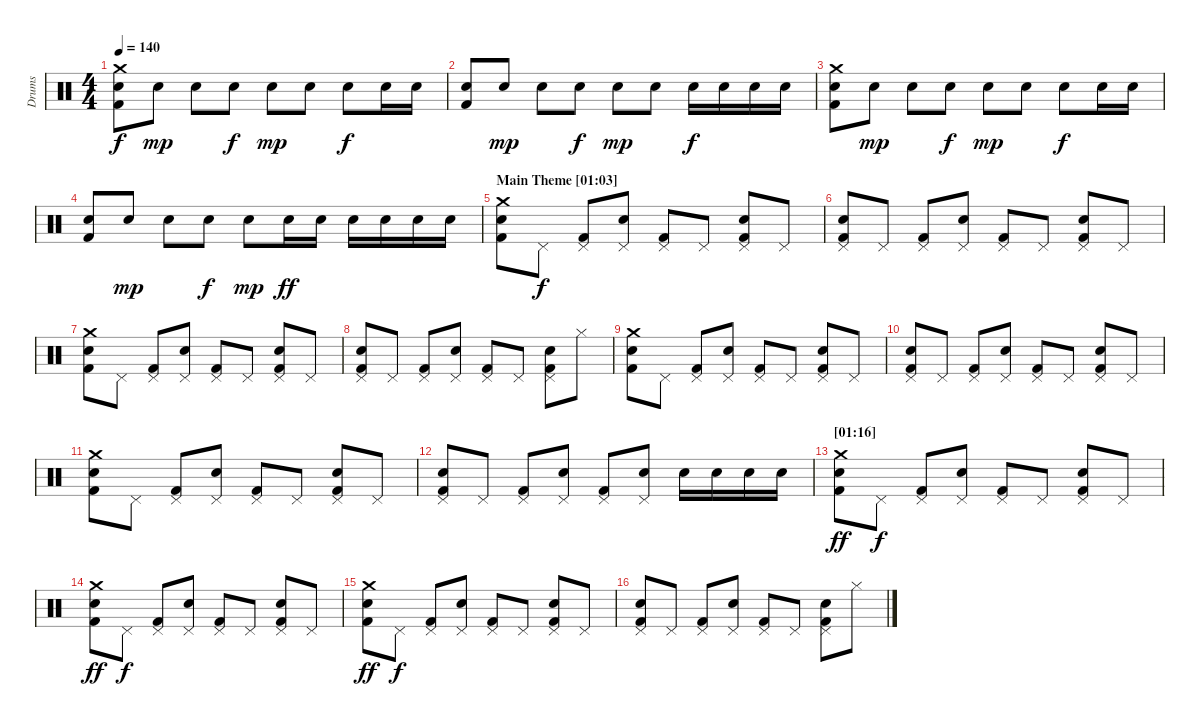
\track ("Drums" "Drums") {instrument percussion}
\staff {score}
\articulation defaults
\ts (4 4)
\tempo 140
\clef neutral
\ks c
("Crash medium (hit)" "Electric Snare (hit)" "Kick (hit) 2").8{dy f} "Electric Snare (hit)".8{dy mp} "Electric Snare (hit)".8 "Electric Snare (hit)".8{dy f} "Electric Snare (hit)".8{dy mp} "Electric Snare (hit)".8 "Electric Snare (hit)".8{dy f} "Electric Snare (hit)".16 "Electric Snare (hit)".16 |
("Electric Snare (hit)" "Kick (hit) 2").8 "Electric Snare (hit)".8{dy mp} "Electric Snare (hit)".8 "Electric Snare (hit)".8{dy f} "Electric Snare (hit)".8{dy mp} "Electric Snare (hit)".8 "Electric Snare (hit)".16{dy f} "Electric Snare (hit)".16 "Electric Snare (hit)".16 "Electric Snare (hit)".16 |
("Crash medium (hit)" "Electric Snare (hit)" "Kick (hit) 2").8 "Electric Snare (hit)".8{dy mp} "Electric Snare (hit)".8 "Electric Snare (hit)".8{dy f} "Electric Snare (hit)".8{dy mp} "Electric Snare (hit)".8 "Electric Snare (hit)".8{dy f} "Electric Snare (hit)".16 "Electric Snare (hit)".16 |
("Electric Snare (hit)" "Kick (hit) 2").8 "Electric Snare (hit)".8{dy mp} "Electric Snare (hit)".8 "Electric Snare (hit)".8{dy f} "Electric Snare (hit)".8{dy mp} "Electric Snare (hit)".16{dy ff} "Electric Snare (hit)".16 "Electric Snare (hit)".16 "Electric Snare (hit)".16 "Electric Snare (hit)".16 "Electric Snare (hit)".16 |
\section ("" "Main Theme [01:03]")
("Crash medium (hit)" "Electric Snare (hit)" "Kick (hit) 2").8 "Pedal Hi-Hat (hit)".8{dy f} ("Pedal Hi-Hat (hit)" "Kick (hit) 2").8 ("Pedal Hi-Hat (hit)" "Electric Snare (hit)").8 ("Pedal Hi-Hat (hit)" "Kick (hit) 2").8 "Pedal Hi-Hat (hit)".8 ("Pedal Hi-Hat (hit)" "Electric Snare (hit)" "Kick (hit) 2").8 "Pedal Hi-Hat (hit)".8 |
("Pedal Hi-Hat (hit)" "Electric Snare (hit)" "Kick (hit) 2").8 "Pedal Hi-Hat (hit)".8 ("Pedal Hi-Hat (hit)" "Kick (hit) 2").8 ("Pedal Hi-Hat (hit)" "Electric Snare (hit)").8 ("Pedal Hi-Hat (hit)" "Kick (hit) 2").8 "Pedal Hi-Hat (hit)".8 ("Pedal Hi-Hat (hit)" "Electric Snare (hit)" "Kick (hit) 2").8 "Pedal Hi-Hat (hit)".8 |
("Crash medium (hit)" "Electric Snare (hit)" "Kick (hit) 2").8 "Pedal Hi-Hat (hit)".8 ("Pedal Hi-Hat (hit)" "Kick (hit) 2").8 ("Pedal Hi-Hat (hit)" "Electric Snare (hit)").8 ("Pedal Hi-Hat (hit)" "Kick (hit) 2").8 "Pedal Hi-Hat (hit)".8 ("Pedal Hi-Hat (hit)" "Electric Snare (hit)" "Kick (hit) 2").8 "Pedal Hi-Hat (hit)".8 |
("Pedal Hi-Hat (hit)" "Electric Snare (hit)" "Kick (hit) 2").8 "Pedal Hi-Hat (hit)".8 ("Pedal Hi-Hat (hit)" "Kick (hit) 2").8 ("Pedal Hi-Hat (hit)" "Electric Snare (hit)").8 ("Pedal Hi-Hat (hit)" "Kick (hit) 2").8 "Pedal Hi-Hat (hit)".8 ("Pedal Hi-Hat (hit)" "Electric Snare (hit)" "Kick (hit) 2").8 "Hi-Hat (closed)".8 |
("Crash medium (hit)" "Electric Snare (hit)" "Kick (hit) 2").8 "Pedal Hi-Hat (hit)".8 ("Pedal Hi-Hat (hit)" "Kick (hit) 2").8 ("Pedal Hi-Hat (hit)" "Electric Snare (hit)").8 ("Pedal Hi-Hat (hit)" "Kick (hit) 2").8 "Pedal Hi-Hat (hit)".8 ("Pedal Hi-Hat (hit)" "Electric Snare (hit)" "Kick (hit) 2").8 "Pedal Hi-Hat (hit)".8 |
("Pedal Hi-Hat (hit)" "Electric Snare (hit)" "Kick (hit) 2").8 "Pedal Hi-Hat (hit)".8 ("Pedal Hi-Hat (hit)" "Kick (hit) 2").8 ("Pedal Hi-Hat (hit)" "Electric Snare (hit)").8 ("Pedal Hi-Hat (hit)" "Kick (hit) 2").8 "Pedal Hi-Hat (hit)".8 ("Pedal Hi-Hat (hit)" "Electric Snare (hit)" "Kick (hit) 2").8 "Pedal Hi-Hat (hit)".8 |
("Crash medium (hit)" "Electric Snare (hit)" "Kick (hit) 2").8 "Pedal Hi-Hat (hit)".8 ("Pedal Hi-Hat (hit)" "Kick (hit) 2").8 ("Pedal Hi-Hat (hit)" "Electric Snare (hit)").8 ("Pedal Hi-Hat (hit)" "Kick (hit) 2").8 "Pedal Hi-Hat (hit)".8 ("Pedal Hi-Hat (hit)" "Electric Snare (hit)" "Kick (hit) 2").8 "Pedal Hi-Hat (hit)".8 |
("Pedal Hi-Hat (hit)" "Electric Snare (hit)" "Kick (hit) 2").8 "Pedal Hi-Hat (hit)".8 ("Pedal Hi-Hat (hit)" "Kick (hit) 2").8 ("Pedal Hi-Hat (hit)" "Electric Snare (hit)").8 ("Pedal Hi-Hat (hit)" "Kick (hit) 2").8 ("Pedal Hi-Hat (hit)" "Electric Snare (hit)").8 "Electric Snare (hit)".16 "Electric Snare (hit)".16 "Electric Snare (hit)".16 "Electric Snare (hit)".16 |
\section ("" "[01:16]")
("Crash medium (hit)" "Electric Snare (hit)" "Kick (hit) 2").8{dy ff} "Pedal Hi-Hat (hit)".8{dy f} ("Pedal Hi-Hat (hit)" "Kick (hit) 2").8 ("Pedal Hi-Hat (hit)" "Electric Snare (hit)").8 ("Pedal Hi-Hat (hit)" "Kick (hit) 2").8 "Pedal Hi-Hat (hit)".8 ("Pedal Hi-Hat (hit)" "Electric Snare (hit)" "Kick (hit) 2").8 "Pedal Hi-Hat (hit)".8 |
("Crash medium (hit)" "Electric Snare (hit)" "Kick (hit) 2").8{dy ff} "Pedal Hi-Hat (hit)".8{dy f} ("Pedal Hi-Hat (hit)" "Kick (hit) 2").8 ("Pedal Hi-Hat (hit)" "Electric Snare (hit)").8 ("Pedal Hi-Hat (hit)" "Kick (hit) 2").8 "Pedal Hi-Hat (hit)".8 ("Pedal Hi-Hat (hit)" "Electric Snare (hit)" "Kick (hit) 2").8 "Pedal Hi-Hat (hit)".8 |
("Crash medium (hit)" "Electric Snare (hit)" "Kick (hit) 2").8{dy ff} "Pedal Hi-Hat (hit)".8{dy f} ("Pedal Hi-Hat (hit)" "Kick (hit) 2").8 ("Pedal Hi-Hat (hit)" "Electric Snare (hit)").8 ("Pedal Hi-Hat (hit)" "Kick (hit) 2").8 "Pedal Hi-Hat (hit)".8 ("Pedal Hi-Hat (hit)" "Electric Snare (hit)" "Kick (hit) 2").8 "Pedal Hi-Hat (hit)".8 |
("Pedal Hi-Hat (hit)" "Electric Snare (hit)" "Kick (hit) 2").8 "Pedal Hi-Hat (hit)".8 ("Pedal Hi-Hat (hit)" "Kick (hit) 2").8 ("Pedal Hi-Hat (hit)" "Electric Snare (hit)").8 ("Pedal Hi-Hat (hit)" "Kick (hit) 2").8 "Pedal Hi-Hat (hit)".8 ("Pedal Hi-Hat (hit)" "Electric Snare (hit)" "Kick (hit) 2").8 "Hi-Hat (closed)".8
